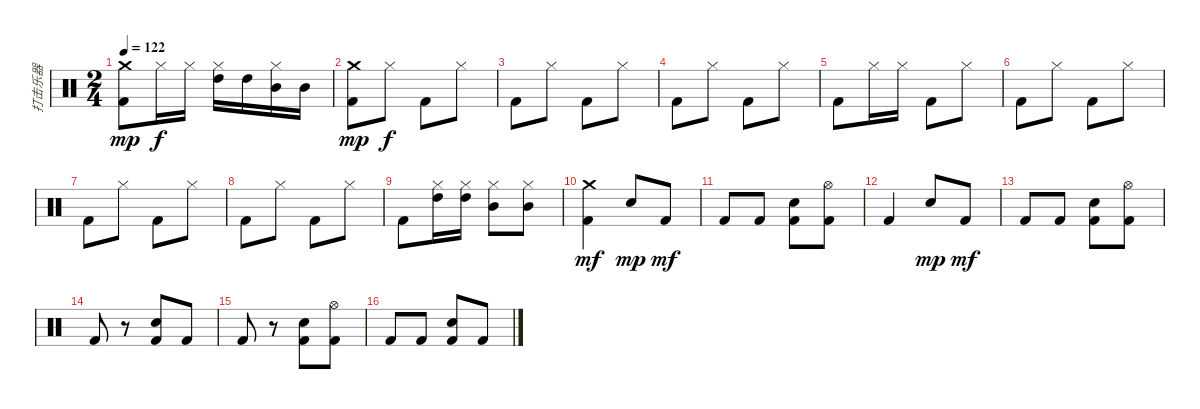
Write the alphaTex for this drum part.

\track ("打击乐器" "打击乐器") {instrument percussion}
\staff {score}
\articulation defaults
\ts (2 4)
\tempo 122
\clef neutral
\ks c
("Crash medium (hit)" "Kick (hit) 2").8{dy mp} "Hi-Hat (closed)".16{dy f} "Hi-Hat (closed)".16 ("Hi-Hat (closed)" "High Tom (hit)").16 "High Tom (hit)".16 ("Hi-Hat (closed)" "Mid Tom (hit)").16 "Mid Tom (hit)".16 |
("Crash medium (hit)" "Kick (hit) 2").8{dy mp} "Hi-Hat (closed)".8{dy f} "Kick (hit) 2".8 "Hi-Hat (closed)".8 |
"Kick (hit) 2".8 "Hi-Hat (closed)".8 "Kick (hit) 2".8 "Hi-Hat (closed)".8 |
"Kick (hit) 2".8 "Hi-Hat (closed)".8 "Kick (hit) 2".8 "Hi-Hat (closed)".8 |
"Kick (hit) 2".8 "Hi-Hat (closed)".16 "Hi-Hat (closed)".16 "Kick (hit) 2".8 "Hi-Hat (closed)".8 |
"Kick (hit) 2".8 "Hi-Hat (closed)".8 "Kick (hit) 2".8 "Hi-Hat (closed)".8 |
"Kick (hit) 2".8 "Hi-Hat (closed)".8 "Kick (hit) 2".8 "Hi-Hat (closed)".8 |
"Kick (hit) 2".8 "Hi-Hat (closed)".8 "Kick (hit) 2".8 "Hi-Hat (closed)".8 |
"Kick (hit) 2".8 ("Hi-Hat (closed)" "High Tom (hit)").16 ("Hi-Hat (closed)" "High Tom (hit)").16 ("Hi-Hat (closed)" "Mid Tom (hit)").8 ("Hi-Hat (closed)" "Mid Tom (hit)").8 |
("Crash medium (hit)" "Kick (hit) 2").4{dy mf} "Electric Snare (hit)".8{dy mp} "Kick (hit) 2".8{dy mf} |
"Kick (hit) 2".8 "Kick (hit) 2".8 ("Electric Snare (hit)" "Kick (hit) 2").8 ("Hi-Hat (open)" "Kick (hit) 2").8 |
"Kick (hit) 2".4 "Electric Snare (hit)".8{dy mp} "Kick (hit) 2".8{dy mf} |
"Kick (hit) 2".8 "Kick (hit) 2".8 ("Electric Snare (hit)" "Kick (hit) 2").8 ("Hi-Hat (open)" "Kick (hit) 2").8 |
"Kick (hit) 2".8 r.8 ("Electric Snare (hit)" "Kick (hit) 2").8 "Kick (hit) 2".8 |
"Kick (hit) 2".8 r.8 ("Electric Snare (hit)" "Kick (hit) 2").8 ("Hi-Hat (open)" "Kick (hit) 2").8 |
"Kick (hit) 2".8 "Kick (hit) 2".8 ("Electric Snare (hit)" "Kick (hit) 2").8 "Kick (hit) 2".8
